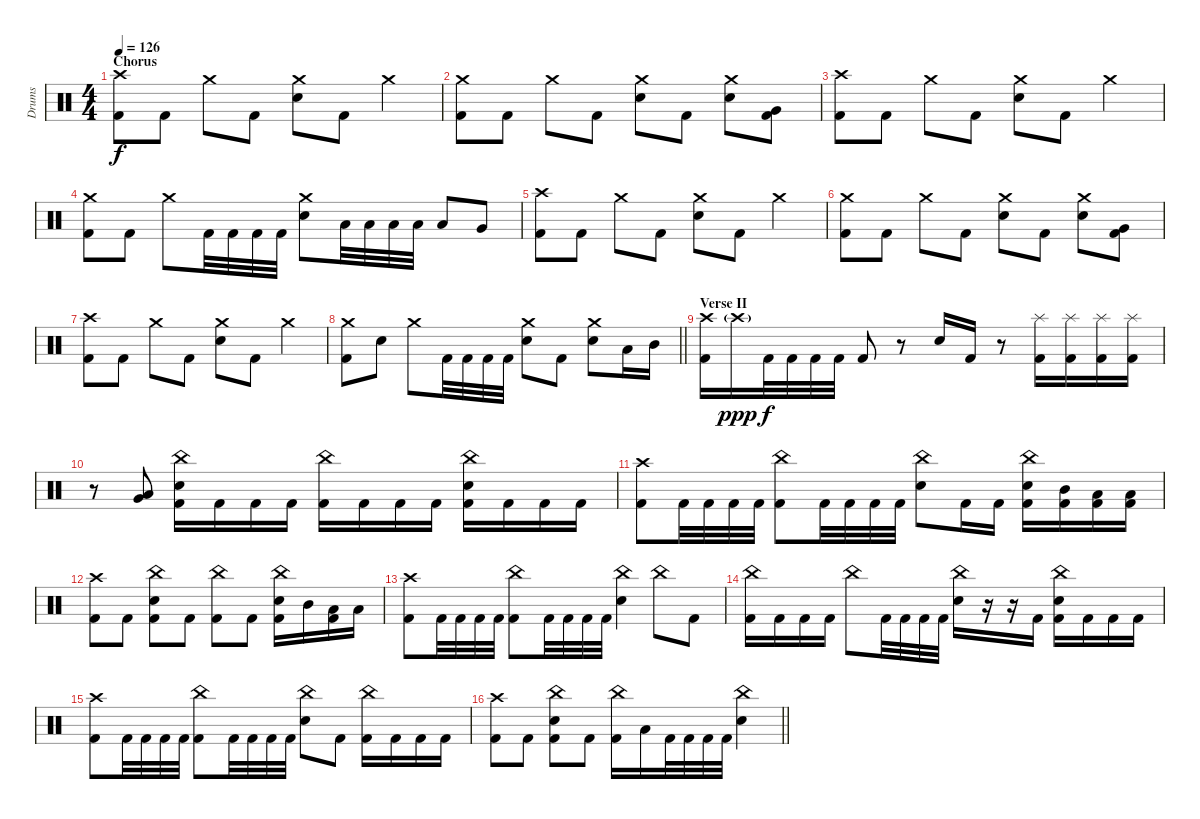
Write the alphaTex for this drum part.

\track ("Drums" "Drums") {instrument percussion}
\staff {score}
\articulation defaults
\ts (4 4)
\section ("" "Chorus")
\tempo 126
\clef neutral
\ks c
("Crash high (hit)" "Kick (hit) 2").8{dy f} "Kick (hit) 2".8 "Crash medium (hit)".8 "Kick (hit) 2".8 ("Crash medium (hit)" "Electric Snare (hit)").8 "Kick (hit) 2".8 "Crash medium (hit)".4 |
("Crash medium (hit)" "Kick (hit) 2").8 "Kick (hit) 2".8 "Crash medium (hit)".8 "Kick (hit) 2".8 ("Crash medium (hit)" "Electric Snare (hit)").8 "Kick (hit) 2".8 ("Crash medium (hit)" "Electric Snare (hit)").8 ("Very Low Tom (hit)" "Kick (hit) 2").8 |
("Crash high (hit)" "Kick (hit) 2").8 "Kick (hit) 2".8 "Crash medium (hit)".8 "Kick (hit) 2".8 ("Crash medium (hit)" "Electric Snare (hit)").8 "Kick (hit) 2".8 "Crash medium (hit)".4 |
("Crash medium (hit)" "Kick (hit) 2").8 "Kick (hit) 2".8 "Crash medium (hit)".8 "Kick (hit) 2".32 "Kick (hit) 2".32 "Kick (hit) 2".32 "Kick (hit) 2".32 ("Crash medium (hit)" "Electric Snare (hit)").8 "Low Tom (hit)".32 "Low Tom (hit)".32 "Low Tom (hit)".32 "Low Tom (hit)".32 "Low Tom (hit)".8 "Very Low Tom (hit)".8 |
("Crash high (hit)" "Kick (hit) 2").8 "Kick (hit) 2".8 "Crash medium (hit)".8 "Kick (hit) 2".8 ("Crash medium (hit)" "Electric Snare (hit)").8 "Kick (hit) 2".8 "Crash medium (hit)".4 |
("Crash medium (hit)" "Kick (hit) 2").8 "Kick (hit) 2".8 "Crash medium (hit)".8 "Kick (hit) 2".8 ("Crash medium (hit)" "Electric Snare (hit)").8 "Kick (hit) 2".8 ("Crash medium (hit)" "Electric Snare (hit)").8 ("Very Low Tom (hit)" "Kick (hit) 2").8 |
("Crash high (hit)" "Kick (hit) 2").8 "Kick (hit) 2".8 "Crash medium (hit)".8 "Kick (hit) 2".8 ("Crash medium (hit)" "Electric Snare (hit)").8 "Kick (hit) 2".8 "Crash medium (hit)".4 |
\barLineRight lightlight
("Crash medium (hit)" "Kick (hit) 2").8 "Electric Snare (hit)".8 "Crash medium (hit)".8 "Kick (hit) 2".32 "Kick (hit) 2".32 "Kick (hit) 2".32 "Kick (hit) 2".32 ("Crash medium (hit)" "Electric Snare (hit)").8 "Kick (hit) 2".8 ("Crash medium (hit)" "Electric Snare (hit)").8 "Low Tom (hit)".16 "Mid Tom (hit)".16 |
\section ("" "Verse II")
("Crash high (hit)" "Kick (hit) 2").16 "Crash high (hit)"{g}.16{dy ppp} "Kick (hit) 2".32{dy f} "Kick (hit) 2".32 "Kick (hit) 2".32 "Kick (hit) 2".32 "Kick (hit) 2".8 r.8 "Electric Snare (hit)".16 "Kick (hit) 2".16 r.8 ("Splash (hit)" "Kick (hit) 2").16 ("Splash (hit)" "Kick (hit) 2").16 ("Splash (hit)" "Kick (hit) 2").16 ("Splash (hit)" "Kick (hit) 2").16 |
r.8 ("Low Tom (hit)" "Very Low Tom (hit)").8 ("China (hit)" "Electric Snare (hit)" "Kick (hit) 2").16 "Kick (hit) 2".16 "Kick (hit) 2".16 "Kick (hit) 2".16 ("China (hit)" "Kick (hit) 2").16 "Kick (hit) 2".16 "Kick (hit) 2".16 "Kick (hit) 2".16 ("China (hit)" "Electric Snare (hit)" "Kick (hit) 2").16 "Kick (hit) 2".16 "Kick (hit) 2".16 "Kick (hit) 2".16 |
("Crash high (hit)" "Kick (hit) 2").8 "Kick (hit) 2".32 "Kick (hit) 2".32 "Kick (hit) 2".32 "Kick (hit) 2".32 ("China (hit)" "Kick (hit) 2").8 "Kick (hit) 2".32 "Kick (hit) 2".32 "Kick (hit) 2".32 "Kick (hit) 2".32 ("China (hit)" "Electric Snare (hit)").8 "Kick (hit) 2".16 "Kick (hit) 2".16 ("China (hit)" "Electric Snare (hit)" "Kick (hit) 2").16 ("Mid Tom (hit)" "Kick (hit) 2").16 ("Low Tom (hit)" "Kick (hit) 2").16 ("Low Tom (hit)" "Kick (hit) 2").16 |
("Crash high (hit)" "Kick (hit) 2").8 "Kick (hit) 2".8 ("China (hit)" "Electric Snare (hit)" "Kick (hit) 2").8 "Kick (hit) 2".8 ("China (hit)" "Kick (hit) 2").8 "Kick (hit) 2".8 ("China (hit)" "Electric Snare (hit)" "Kick (hit) 2").16 "Mid Tom (hit)".16 ("Low Tom (hit)" "Kick (hit) 2").16 "Low Tom (hit)".16 |
("Crash high (hit)" "Kick (hit) 2").8 "Kick (hit) 2".32 "Kick (hit) 2".32 "Kick (hit) 2".32 "Kick (hit) 2".32 ("China (hit)" "Kick (hit) 2").8 "Kick (hit) 2".32 "Kick (hit) 2".32 "Kick (hit) 2".32 "Kick (hit) 2".32 ("China (hit)" "Electric Snare (hit)").4 "China (hit)".8 "Kick (hit) 2".8 |
("China (hit)" "Kick (hit) 2").16 "Kick (hit) 2".16 "Kick (hit) 2".16 "Kick (hit) 2".16 "China (hit)".8 "Kick (hit) 2".32 "Kick (hit) 2".32 "Kick (hit) 2".32 "Kick (hit) 2".32 ("China (hit)" "Electric Snare (hit)").16 r.16 r.16 "Kick (hit) 2".16 ("China (hit)" "Electric Snare (hit)" "Kick (hit) 2").16 "Kick (hit) 2".16 "Kick (hit) 2".16 "Kick (hit) 2".16 |
("Crash high (hit)" "Kick (hit) 2").8 "Kick (hit) 2".32 "Kick (hit) 2".32 "Kick (hit) 2".32 "Kick (hit) 2".32 ("China (hit)" "Kick (hit) 2").8 "Kick (hit) 2".32 "Kick (hit) 2".32 "Kick (hit) 2".32 "Kick (hit) 2".32 ("China (hit)" "Electric Snare (hit)").8 "Kick (hit) 2".8 ("China (hit)" "Kick (hit) 2").16 "Kick (hit) 2".16 "Kick (hit) 2".16 "Kick (hit) 2".16 |
\barLineRight lightlight
("Crash high (hit)" "Kick (hit) 2").8 "Kick (hit) 2".8 ("China (hit)" "Electric Snare (hit)" "Kick (hit) 2").8 "Kick (hit) 2".8 ("China (hit)" "Kick (hit) 2").16 "Low Tom (hit)".16 "Kick (hit) 2".32 "Kick (hit) 2".32 "Kick (hit) 2".32 "Kick (hit) 2".32 ("China (hit)" "Electric Snare (hit)").4
